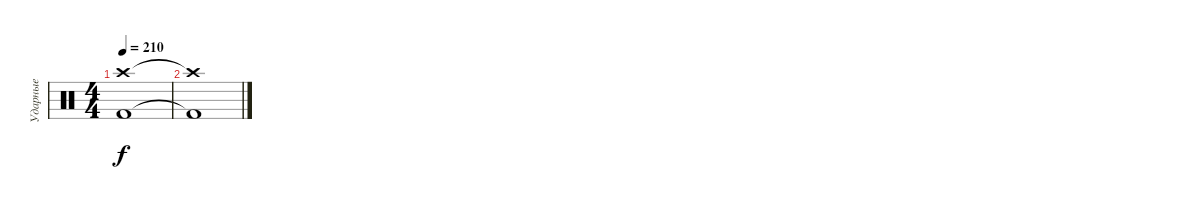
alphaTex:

\track ("Ударные" "Ударные") {instrument percussion}
\staff {score}
\articulation defaults
\ts (4 4)
\tempo 210
\clef neutral
\ks c
("Crash high (hit)" "Kick (hit) 2").1{dy f} |
("Crash high (hit)"{t} "Kick (hit) 2"{t}).1
